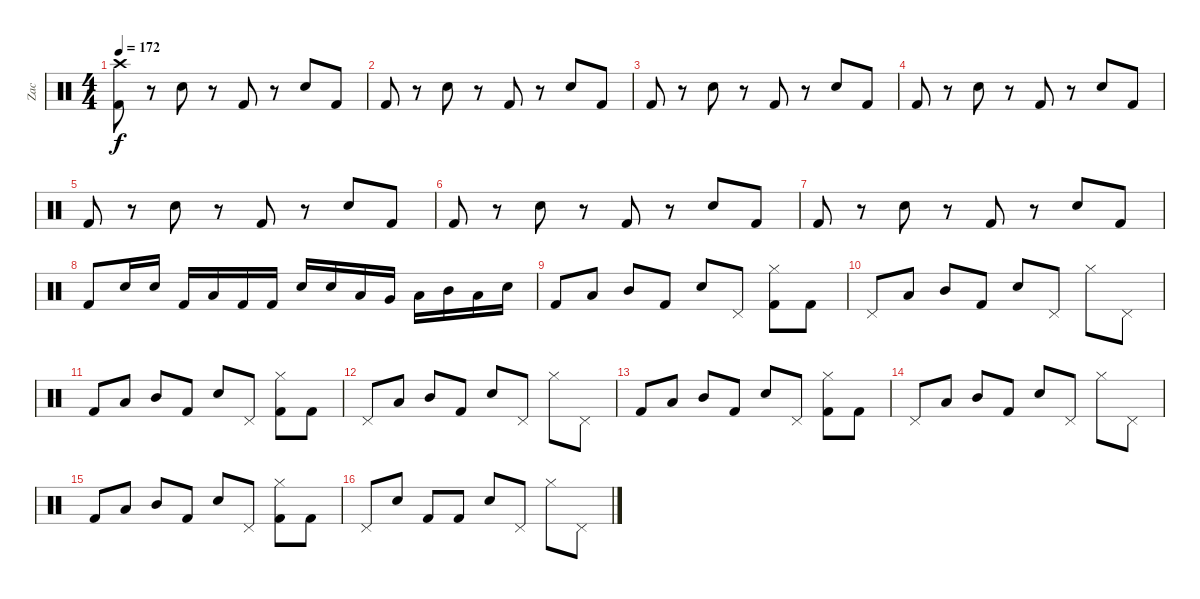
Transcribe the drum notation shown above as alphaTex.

\track ("Zac" "Zac") {instrument percussion}
\staff {score}
\articulation defaults
\ts (4 4)
\tempo 172
\clef neutral
\ks c
("Crash high (hit)" "Kick (hit) 2").8{dy f} r.8 "Electric Snare (hit)".8 r.8 "Kick (hit) 2".8 r.8 "Electric Snare (hit)".8 "Kick (hit) 2".8 |
"Kick (hit) 2".8 r.8 "Electric Snare (hit)".8 r.8 "Kick (hit) 2".8 r.8 "Electric Snare (hit)".8 "Kick (hit) 2".8 |
"Kick (hit) 2".8 r.8 "Electric Snare (hit)".8 r.8 "Kick (hit) 2".8 r.8 "Electric Snare (hit)".8 "Kick (hit) 2".8 |
"Kick (hit) 2".8 r.8 "Electric Snare (hit)".8 r.8 "Kick (hit) 2".8 r.8 "Electric Snare (hit)".8 "Kick (hit) 2".8 |
"Kick (hit) 2".8 r.8 "Electric Snare (hit)".8 r.8 "Kick (hit) 2".8 r.8 "Electric Snare (hit)".8 "Kick (hit) 2".8 |
"Kick (hit) 2".8 r.8 "Electric Snare (hit)".8 r.8 "Kick (hit) 2".8 r.8 "Electric Snare (hit)".8 "Kick (hit) 2".8 |
"Kick (hit) 2".8 r.8 "Electric Snare (hit)".8 r.8 "Kick (hit) 2".8 r.8 "Electric Snare (hit)".8 "Kick (hit) 2".8 |
"Kick (hit) 2".8 "Electric Snare (hit)".16 "Electric Snare (hit)".16 "Kick (hit) 2".16 "Low Tom (hit)".16 "Kick (hit) 2".16 "Kick (hit) 2".16 "Electric Snare (hit)".16 "Electric Snare (hit)".16 "Low Floor Tom (hit)".16 "Very Low Tom (hit)".16 "Low Tom (hit)".16 "Mid Tom (hit)".16 "Low Tom (hit)".16 "Electric Snare (hit)".16 |
"Kick (hit) 2".8 "Low Tom (hit)".8 "Mid Tom (hit)".8 "Kick (hit) 2".8 "Electric Snare (hit)".8 "Pedal Hi-Hat (hit)".8 ("Hi-Hat (closed)" "Kick (hit) 2").8 "Kick (hit) 2".8 |
"Pedal Hi-Hat (hit)".8 "Low Tom (hit)".8 "Mid Tom (hit)".8 "Kick (hit) 2".8 "Electric Snare (hit)".8 "Pedal Hi-Hat (hit)".8 "Hi-Hat (closed)".8 "Pedal Hi-Hat (hit)".8 |
"Kick (hit) 2".8 "Low Tom (hit)".8 "Mid Tom (hit)".8 "Kick (hit) 2".8 "Electric Snare (hit)".8 "Pedal Hi-Hat (hit)".8 ("Hi-Hat (closed)" "Kick (hit) 2").8 "Kick (hit) 2".8 |
"Pedal Hi-Hat (hit)".8 "Low Tom (hit)".8 "Mid Tom (hit)".8 "Kick (hit) 2".8 "Electric Snare (hit)".8 "Pedal Hi-Hat (hit)".8 "Hi-Hat (closed)".8 "Pedal Hi-Hat (hit)".8 |
"Kick (hit) 2".8 "Low Tom (hit)".8 "Mid Tom (hit)".8 "Kick (hit) 2".8 "Electric Snare (hit)".8 "Pedal Hi-Hat (hit)".8 ("Hi-Hat (closed)" "Kick (hit) 2").8 "Kick (hit) 2".8 |
"Pedal Hi-Hat (hit)".8 "Low Tom (hit)".8 "Mid Tom (hit)".8 "Kick (hit) 2".8 "Electric Snare (hit)".8 "Pedal Hi-Hat (hit)".8 "Hi-Hat (closed)".8 "Pedal Hi-Hat (hit)".8 |
"Kick (hit) 2".8 "Low Tom (hit)".8 "Mid Tom (hit)".8 "Kick (hit) 2".8 "Electric Snare (hit)".8 "Pedal Hi-Hat (hit)".8 ("Hi-Hat (closed)" "Kick (hit) 2").8 "Kick (hit) 2".8 |
"Pedal Hi-Hat (hit)".8 "Electric Snare (hit)".8 "Kick (hit) 2".8 "Kick (hit) 2".8 "Electric Snare (hit)".8 "Pedal Hi-Hat (hit)".8 "Hi-Hat (closed)".8 "Pedal Hi-Hat (hit)".8
